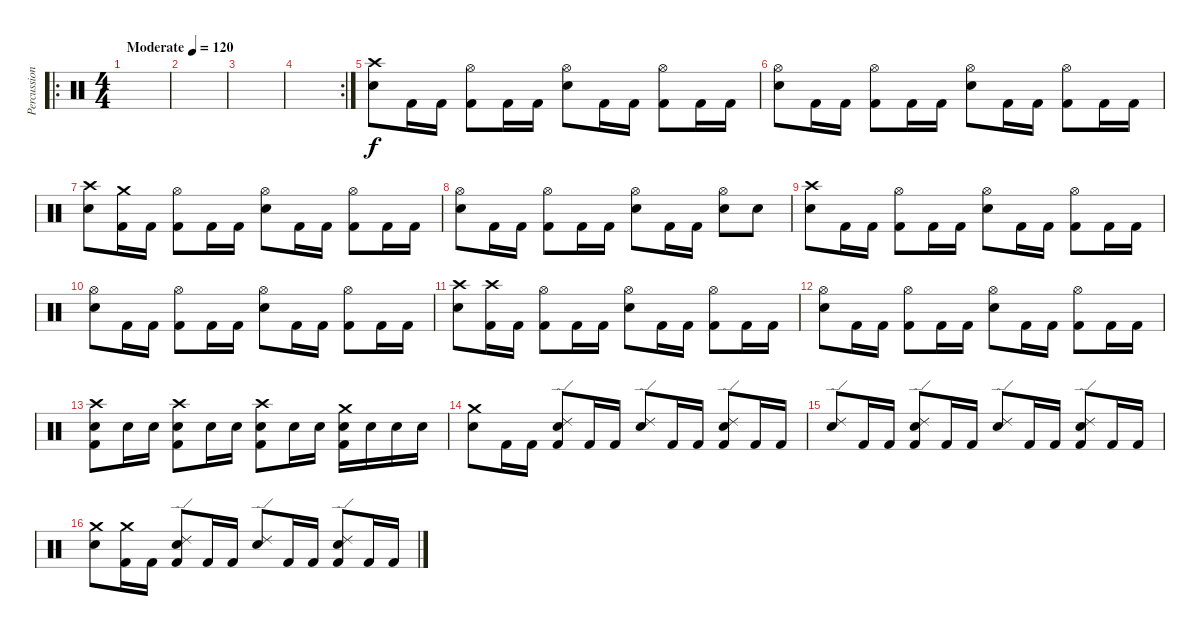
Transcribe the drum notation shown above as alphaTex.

\track ("Percussion" "Percussion") {instrument percussion}
\staff {score}
\articulation defaults
\ro
\ts (4 4)
\tempo (120 "Moderate")
\clef neutral
\ks c
|
|
|
\rc 2
|
("Crash high (hit)" "Snare (hit) 2").8 "Kick (hit) 2".16 "Kick (hit) 2".16 ("Hi-Hat (open)" "Kick (hit) 2").8 "Kick (hit) 2".16 "Kick (hit) 2".16 ("Hi-Hat (open)" "Snare (hit) 2").8 "Kick (hit) 2".16 "Kick (hit) 2".16 ("Hi-Hat (open)" "Kick (hit) 2").8 "Kick (hit) 2".16 "Kick (hit) 2".16 |
("Hi-Hat (open)" "Snare (hit) 2").8 "Kick (hit) 2".16 "Kick (hit) 2".16 ("Hi-Hat (open)" "Kick (hit) 2").8 "Kick (hit) 2".16 "Kick (hit) 2".16 ("Hi-Hat (open)" "Snare (hit) 2").8 "Kick (hit) 2".16 "Kick (hit) 2".16 ("Hi-Hat (open)" "Kick (hit) 2").8 "Kick (hit) 2".16 "Kick (hit) 2".16 |
("Crash high (hit)" "Snare (hit) 2").8 ("Crash medium (hit)" "Kick (hit) 2").16 "Kick (hit) 2".16 ("Hi-Hat (open)" "Kick (hit) 2").8 "Kick (hit) 2".16 "Kick (hit) 2".16 ("Hi-Hat (open)" "Snare (hit) 2").8 "Kick (hit) 2".16 "Kick (hit) 2".16 ("Hi-Hat (open)" "Kick (hit) 2").8 "Kick (hit) 2".16 "Kick (hit) 2".16 |
("Hi-Hat (open)" "Snare (hit) 2").8 "Kick (hit) 2".16 "Kick (hit) 2".16 ("Hi-Hat (open)" "Kick (hit) 2").8 "Kick (hit) 2".16 "Kick (hit) 2".16 ("Hi-Hat (open)" "Snare (hit) 2").8 "Kick (hit) 2".16 "Kick (hit) 2".16 ("Hi-Hat (open)" "Snare (hit) 2").8 "Snare (hit) 2".8 |
("Crash high (hit)" "Snare (hit) 2").8 "Kick (hit) 2".16 "Kick (hit) 2".16 ("Hi-Hat (open)" "Kick (hit) 2").8 "Kick (hit) 2".16 "Kick (hit) 2".16 ("Hi-Hat (open)" "Snare (hit) 2").8 "Kick (hit) 2".16 "Kick (hit) 2".16 ("Hi-Hat (open)" "Kick (hit) 2").8 "Kick (hit) 2".16 "Kick (hit) 2".16 |
("Hi-Hat (open)" "Snare (hit) 2").8 "Kick (hit) 2".16 "Kick (hit) 2".16 ("Hi-Hat (open)" "Kick (hit) 2").8 "Kick (hit) 2".16 "Kick (hit) 2".16 ("Hi-Hat (open)" "Snare (hit) 2").8 "Kick (hit) 2".16 "Kick (hit) 2".16 ("Hi-Hat (open)" "Kick (hit) 2").8 "Kick (hit) 2".16 "Kick (hit) 2".16 |
("Crash high (hit)" "Snare (hit) 2").8 ("Crash high (hit)" "Kick (hit) 2").16 "Kick (hit) 2".16 ("Hi-Hat (open)" "Kick (hit) 2").8 "Kick (hit) 2".16 "Kick (hit) 2".16 ("Hi-Hat (open)" "Snare (hit) 2").8 "Kick (hit) 2".16 "Kick (hit) 2".16 ("Hi-Hat (open)" "Kick (hit) 2").8 "Kick (hit) 2".16 "Kick (hit) 2".16 |
("Hi-Hat (open)" "Snare (hit) 2").8 "Kick (hit) 2".16 "Kick (hit) 2".16 ("Hi-Hat (open)" "Kick (hit) 2").8 "Kick (hit) 2".16 "Kick (hit) 2".16 ("Hi-Hat (open)" "Snare (hit) 2").8 "Kick (hit) 2".16 "Kick (hit) 2".16 ("Hi-Hat (open)" "Kick (hit) 2").8 "Kick (hit) 2".16 "Kick (hit) 2".16 |
("Crash high (hit)" "Snare (hit) 2" "Kick (hit) 2").8 "Snare (hit) 2".16 "Snare (hit) 2".16 ("Crash high (hit)" "Snare (hit) 2" "Kick (hit) 2").8 "Snare (hit) 2".16 "Snare (hit) 2".16 ("Crash high (hit)" "Snare (hit) 2" "Kick (hit) 2").8 "Snare (hit) 2".16 "Snare (hit) 2".16 ("Crash medium (hit)" "Snare (hit) 2" "Kick (hit) 2").16 "Snare (hit) 2".16 "Snare (hit) 2".16 "Snare (hit) 2".16 |
("Crash medium (hit)" "Snare (hit) 2").8 "Kick (hit) 2".16 "Kick (hit) 2".16 ("Ride (edge) 2" "Snare (hit) 2" "Kick (hit) 2").8 "Kick (hit) 2".16 "Kick (hit) 2".16 ("Ride (edge) 2" "Snare (hit) 2").8 "Kick (hit) 2".16 "Kick (hit) 2".16 ("Ride (edge) 2" "Snare (hit) 2" "Kick (hit) 2").8 "Kick (hit) 2".16 "Kick (hit) 2".16 |
("Ride (edge) 2" "Snare (hit) 2").8 "Kick (hit) 2".16 "Kick (hit) 2".16 ("Ride (edge) 2" "Snare (hit) 2" "Kick (hit) 2").8 "Kick (hit) 2".16 "Kick (hit) 2".16 ("Ride (edge) 2" "Snare (hit) 2").8 "Kick (hit) 2".16 "Kick (hit) 2".16 ("Ride (edge) 2" "Snare (hit) 2" "Kick (hit) 2").8 "Kick (hit) 2".16 "Kick (hit) 2".16 |
("Crash medium (hit)" "Snare (hit) 2").8 ("Crash medium (hit)" "Kick (hit) 2").16 "Kick (hit) 2".16 ("Ride (edge) 2" "Snare (hit) 2" "Kick (hit) 2").8 "Kick (hit) 2".16 "Kick (hit) 2".16 ("Ride (edge) 2" "Snare (hit) 2").8 "Kick (hit) 2".16 "Kick (hit) 2".16 ("Ride (edge) 2" "Snare (hit) 2" "Kick (hit) 2").8 "Kick (hit) 2".16 "Kick (hit) 2".16
